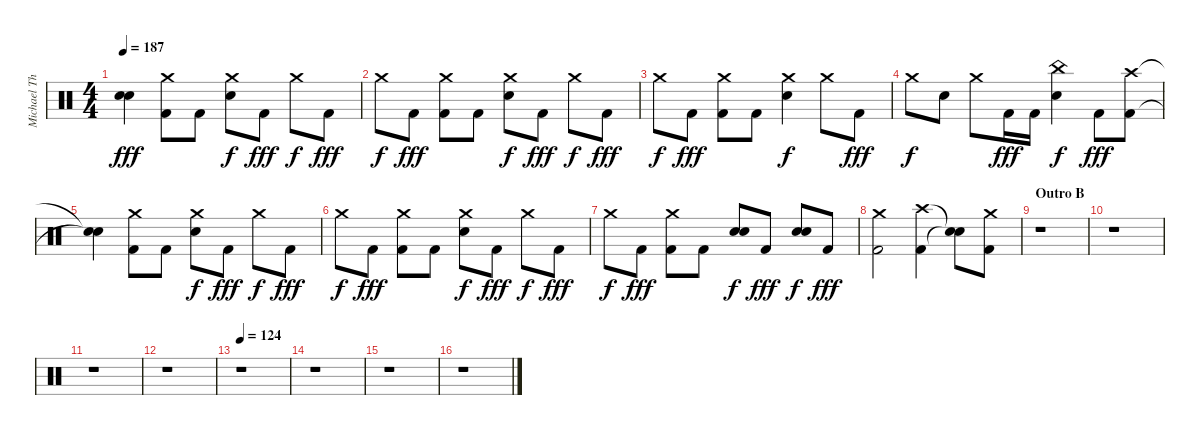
\track ("Michael Thomas" "Michael Th") {instrument percussion}
\staff {score}
\articulation defaults
\ts (4 4)
\tempo 187
\clef neutral
\ks c
("Snare (hit)"{t} "Snare (hit)"{t}).4{dy fff} ("Crash medium (hit)" "Kick (hit) 2").8 "Kick (hit) 2".8 ("Crash medium (hit)" "Electric Snare (hit)").8{dy f} "Kick (hit) 2".8{dy fff} "Crash medium (hit)".8{dy f} "Kick (hit) 2".8{dy fff} |
"Crash medium (hit)".8{dy f} "Kick (hit) 2".8{dy fff} ("Crash medium (hit)" "Kick (hit) 2").8 "Kick (hit) 2".8 ("Crash medium (hit)" "Electric Snare (hit)").8{dy f} "Kick (hit) 2".8{dy fff} "Crash medium (hit)".8{dy f} "Kick (hit) 2".8{dy fff} |
"Crash medium (hit)".8{dy f} "Kick (hit) 2".8{dy fff} ("Crash medium (hit)" "Kick (hit) 2").8 "Kick (hit) 2".8 ("Crash medium (hit)" "Electric Snare (hit)").4{dy f} "Crash medium (hit)".8 "Kick (hit) 2".8{dy fff} |
"Crash medium (hit)".8{dy f} "Electric Snare (hit)".8 "Crash medium (hit)".8 "Kick (hit) 2".16{dy fff} "Kick (hit) 2".16 ("China (hit)" "Electric Snare (hit)").4{dy f} "Kick (hit) 2".8{dy fff} ("Crash high (hit)" "Kick (hit) 2").8 |
("Snare (hit)"{t} "Snare (hit)"{t}).4 ("Crash medium (hit)" "Kick (hit) 2").8 "Kick (hit) 2".8 ("Crash medium (hit)" "Electric Snare (hit)").8{dy f} "Kick (hit) 2".8{dy fff} "Crash medium (hit)".8{dy f} "Kick (hit) 2".8{dy fff} |
"Crash medium (hit)".8{dy f} "Kick (hit) 2".8{dy fff} ("Crash medium (hit)" "Kick (hit) 2").8 "Kick (hit) 2".8 ("Crash medium (hit)" "Electric Snare (hit)").8{dy f} "Kick (hit) 2".8{dy fff} "Crash medium (hit)".8{dy f} "Kick (hit) 2".8{dy fff} |
"Crash medium (hit)".8{dy f} "Kick (hit) 2".8{dy fff} ("Crash medium (hit)" "Kick (hit) 2").8 "Kick (hit) 2".8 ("Electric Snare (hit)" "Electric Snare (hit)").8{bd 120 dy f} "Kick (hit) 2".8{dy fff} ("Electric Snare (hit)" "Electric Snare (hit)").8{bd 120 dy f} "Kick (hit) 2".8{dy fff} |
("Crash medium (hit)" "Kick (hit) 2").2 ("Crash high (hit)" "Kick (hit) 2").4 ("Snare (hit)"{t} "Snare (hit)"{t}).8 ("Crash medium (hit)" "Kick (hit) 2").8 |
\section ("" "Outro B")
r.1 |
r.1 |
r.1 |
r.1 |
\tempo 124
r.1 |
r.1 |
r.1 |
r.1
